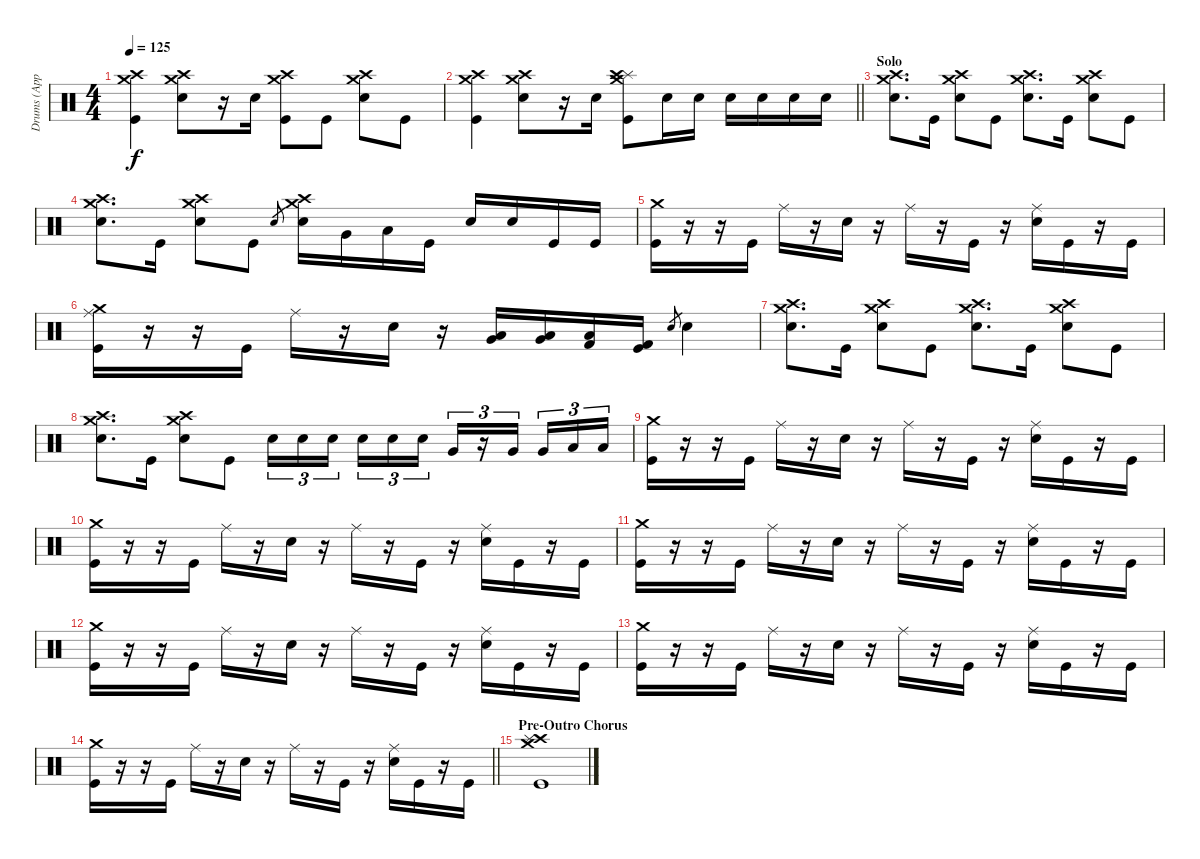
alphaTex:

\track ("Drums (Approx.)" "Drums (App") {instrument percussion}
\staff {score}
\articulation defaults
\ts (4 4)
\tempo 125
\clef neutral
\ks c
("Crash medium (hit)" "Crash high (hit)" "Kick (hit)").4{dy f} ("Crash medium (hit)" "Crash high (hit)" "Electric Snare (hit)").8 r.16 "Electric Snare (hit)".16 ("Crash medium (hit)" "Crash high (hit)" "Kick (hit)").8 "Kick (hit)".8 ("Crash medium (hit)" "Crash high (hit)" "Electric Snare (hit)").8 "Kick (hit)".8 |
\barLineRight lightlight
("Crash medium (hit)" "Crash high (hit)" "Kick (hit)").4 ("Crash medium (hit)" "Crash high (hit)" "Electric Snare (hit)").8 r.16 "Electric Snare (hit)".16 ("Splash (hit)" "Crash medium (hit)" "Crash high (hit)" "Kick (hit)").8 "Electric Snare (hit)".16 "Electric Snare (hit)".16 "Electric Snare (hit)".16 "Electric Snare (hit)".16 "Electric Snare (hit)".16 "Electric Snare (hit)".16 |
\section ("" "Solo")
("Crash medium (hit)" "Crash high (hit)" "Electric Snare (hit)").8{d} "Kick (hit)".16 ("Crash medium (hit)" "Crash high (hit)" "Electric Snare (hit)").8 "Kick (hit)".8 ("Crash medium (hit)" "Crash high (hit)" "Electric Snare (hit)").8{d} "Kick (hit)".16 ("Crash medium (hit)" "Crash high (hit)" "Electric Snare (hit)").8 "Kick (hit)".8 |
("Crash medium (hit)" "Crash high (hit)" "Electric Snare (hit)").8{d} "Kick (hit)".16 ("Crash medium (hit)" "Crash high (hit)" "Electric Snare (hit)").8 "Kick (hit)".8 "Electric Snare (hit)".8{gr} ("Crash medium (hit)" "Crash high (hit)" "Electric Snare (hit)").16 "Very Low Tom (hit)".16 "Low Floor Tom (hit)".16 "Kick (hit)".16 "Electric Snare (hit)".16 "Electric Snare (hit)".16 "Kick (hit)".16 "Kick (hit)".16 |
("Crash medium (hit)" "Kick (hit)").16 r.16 r.16 "Kick (hit)".16 "Ride (middle)".16 r.16 "Electric Snare (hit)".16 r.16 "Ride (middle)".16 r.16 "Kick (hit)".16 r.16 ("Ride (middle)" "Electric Snare (hit)").16 "Kick (hit)".16 r.16 "Kick (hit)".16 |
("Crash medium (hit)" "Ride (middle)" "Kick (hit)").16 r.16 r.16 "Kick (hit)".16 "Ride (middle)".16 r.16 "Electric Snare (hit)".16 r.16 ("Very Low Tom (hit)" "Low Tom (hit)").16 ("Low Floor Tom (hit)" "Very Low Tom (hit)").16 ("Kick (hit) 2" "Low Floor Tom (hit)").16 ("Kick (hit) 2" "Kick (hit)").16 "Electric Snare (hit)".8{gr} "Electric Snare (hit)".4 |
("Crash medium (hit)" "Crash high (hit)" "Electric Snare (hit)").8{d} "Kick (hit)".16 ("Crash medium (hit)" "Crash high (hit)" "Electric Snare (hit)").8 "Kick (hit)".8 ("Crash medium (hit)" "Crash high (hit)" "Electric Snare (hit)").8{d} "Kick (hit)".16 ("Crash medium (hit)" "Crash high (hit)" "Electric Snare (hit)").8 "Kick (hit)".8 |
("Crash medium (hit)" "Crash high (hit)" "Electric Snare (hit)").8{d} "Kick (hit)".16 ("Crash medium (hit)" "Crash high (hit)" "Electric Snare (hit)").8 "Kick (hit)".8 "Electric Snare (hit)".16{tu (3 2)} "Electric Snare (hit)".16{tu (3 2)} "Electric Snare (hit)".16{tu (3 2) beam splitsecondary} "Electric Snare (hit)".16{tu (3 2)} "Electric Snare (hit)".16{tu (3 2)} "Electric Snare (hit)".16{tu (3 2)} "Very Low Tom (hit)".16{tu (3 2)} r.16{tu (3 2)} "Very Low Tom (hit)".16{tu (3 2) beam splitsecondary} "Very Low Tom (hit)".16{tu (3 2)} "Low Floor Tom (hit)".16{tu (3 2)} "Low Floor Tom (hit)".16{tu (3 2)} |
("Crash medium (hit)" "Kick (hit)").16 r.16 r.16 "Kick (hit)".16 "Ride (middle)".16 r.16 "Electric Snare (hit)".16 r.16 "Ride (middle)".16 r.16 "Kick (hit)".16 r.16 ("Ride (middle)" "Electric Snare (hit)").16 "Kick (hit)".16 r.16 "Kick (hit)".16 |
("Crash medium (hit)" "Kick (hit)").16 r.16 r.16 "Kick (hit)".16 "Ride (middle)".16 r.16 "Electric Snare (hit)".16 r.16 "Ride (middle)".16 r.16 "Kick (hit)".16 r.16 ("Ride (middle)" "Electric Snare (hit)").16 "Kick (hit)".16 r.16 "Kick (hit)".16 |
("Crash medium (hit)" "Kick (hit)").16 r.16 r.16 "Kick (hit)".16 "Ride (middle)".16 r.16 "Electric Snare (hit)".16 r.16 "Ride (middle)".16 r.16 "Kick (hit)".16 r.16 ("Ride (middle)" "Electric Snare (hit)").16 "Kick (hit)".16 r.16 "Kick (hit)".16 |
("Crash medium (hit)" "Kick (hit)").16 r.16 r.16 "Kick (hit)".16 "Ride (middle)".16 r.16 "Electric Snare (hit)".16 r.16 "Ride (middle)".16 r.16 "Kick (hit)".16 r.16 ("Ride (middle)" "Electric Snare (hit)").16 "Kick (hit)".16 r.16 "Kick (hit)".16 |
("Crash medium (hit)" "Kick (hit)").16 r.16 r.16 "Kick (hit)".16 "Ride (middle)".16 r.16 "Electric Snare (hit)".16 r.16 "Ride (middle)".16 r.16 "Kick (hit)".16 r.16 ("Ride (middle)" "Electric Snare (hit)").16 "Kick (hit)".16 r.16 "Kick (hit)".16 |
\barLineRight lightlight
("Crash medium (hit)" "Kick (hit)").16 r.16 r.16 "Kick (hit)".16 "Ride (middle)".16 r.16 "Electric Snare (hit)".16 r.16 "Ride (middle)".16 r.16 "Kick (hit)".16 r.16 ("Ride (middle)" "Electric Snare (hit)").16 "Kick (hit)".16 r.16 "Kick (hit)".16 |
\section ("" "Pre-Outro Chorus")
("Crash high (hit)" "Crash medium (hit)" "Splash (hit)" "Kick (hit)").1
